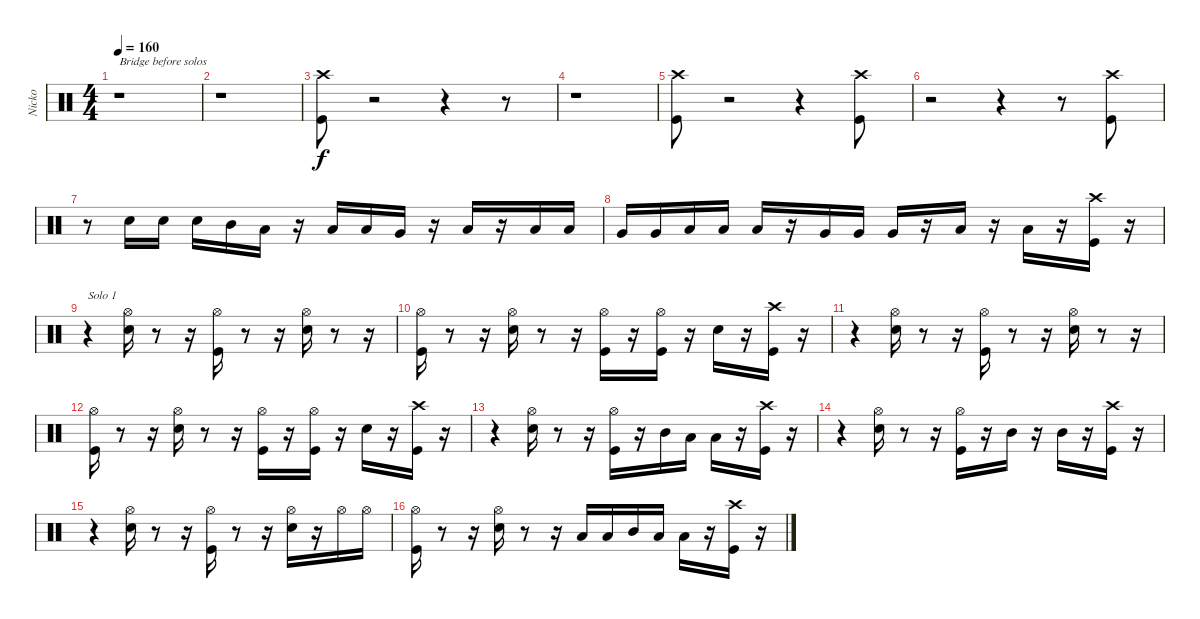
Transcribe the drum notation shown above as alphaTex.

\track ("Nicko" "Nicko") {instrument percussion}
\staff {score}
\articulation defaults
\ts (4 4)
\tempo 160
\clef neutral
\ks c
r.1{txt "Bridge before solos" dy f} |
r.1 |
("Kick (hit)" "Crash high (hit)").8 r.2 r.4 r.8 |
r.1 |
("Crash high (hit)" "Kick (hit)").8 r.2 r.4 ("Kick (hit)" "Crash high (hit)").8 |
r.2 r.4 r.8 ("Crash high (hit)" "Kick (hit)").8 |
r.8 "Snare (hit) 2".16 "Snare (hit) 2".16 "Snare (hit) 2".16 "Mid Tom (hit)".16 "Low Tom (hit)".16 r.16 "Low Tom (hit)".16 "Low Tom (hit)".16 "Very Low Tom (hit)".16 r.16 "Low Tom (hit)".16 r.16 "Low Tom (hit)".16 "Low Tom (hit)".16 |
"Very Low Tom (hit)".16 "Very Low Tom (hit)".16 "Low Floor Tom (hit)".16 "Low Floor Tom (hit)".16 "Low Floor Tom (hit)".16 r.16 "Very Low Tom (hit)".16 "Very Low Tom (hit)".16 "Very Low Tom (hit)".16 r.16 "Low Floor Tom (hit)".16 r.16 "Low Floor Tom (hit)".16 r.16 ("Kick (hit)" "Crash high (hit)").16 r.16 |
r.4{txt "Solo 1"} ("Hi-Hat (open)" "Snare (hit) 2").16 r.8 r.16 ("Kick (hit)" "Hi-Hat (open)").16 r.8 r.16 ("Snare (hit) 2" "Hi-Hat (open)").16 r.8 r.16 |
("Kick (hit)" "Hi-Hat (open)").16 r.8 r.16 ("Hi-Hat (open)" "Snare (hit) 2").16 r.8 r.16 ("Kick (hit)" "Hi-Hat (open)").16 r.16 ("Kick (hit)" "Hi-Hat (open)").16 r.16 "Snare (hit) 2".16 r.16 ("Kick (hit)" "Crash high (hit)").16 r.16 |
r.4 ("Snare (hit) 2" "Hi-Hat (open)").16 r.8 r.16 ("Kick (hit)" "Hi-Hat (open)").16 r.8 r.16 ("Snare (hit) 2" "Hi-Hat (open)").16 r.8 r.16 |
("Kick (hit)" "Hi-Hat (open)").16 r.8 r.16 ("Hi-Hat (open)" "Snare (hit) 2").16 r.8 r.16 ("Kick (hit)" "Hi-Hat (open)").16 r.16 ("Kick (hit)" "Hi-Hat (open)").16 r.16 "Snare (hit) 2".16 r.16 ("Kick (hit)" "Crash high (hit)").16 r.16 |
r.4 ("Snare (hit) 2" "Hi-Hat (open)").16 r.8 r.16 ("Kick (hit)" "Hi-Hat (open)").16 r.16 "Mid Tom (hit)".16 "Low Tom (hit)".16 "Low Tom (hit)".16 r.16 ("Kick (hit)" "Crash high (hit)").16 r.16 |
r.4 ("Snare (hit) 2" "Hi-Hat (open)").16 r.8 r.16 ("Kick (hit)" "Hi-Hat (open)").16 r.16 "Mid Tom (hit)".16 r.16 "Mid Tom (hit)".16 r.16 ("Kick (hit)" "Crash high (hit)").16 r.16 |
r.4 ("Hi-Hat (open)" "Snare (hit) 2").16 r.8 r.16 ("Kick (hit)" "Hi-Hat (open)").16 r.8 r.16 ("Snare (hit) 2" "Hi-Hat (open)").16 r.16 "Hi-Hat (open)".16 "Hi-Hat (open)".16 |
("Kick (hit)" "Hi-Hat (open)").16 r.8 r.16 ("Hi-Hat (open)" "Snare (hit) 2").16 r.8 r.16 "Low Tom (hit)".16 "Low Tom (hit)".16 "Mid Tom (hit)".16 "Low Tom (hit)".16 "Low Tom (hit)".16 r.16 ("Kick (hit)" "Crash high (hit)").16 r.16
